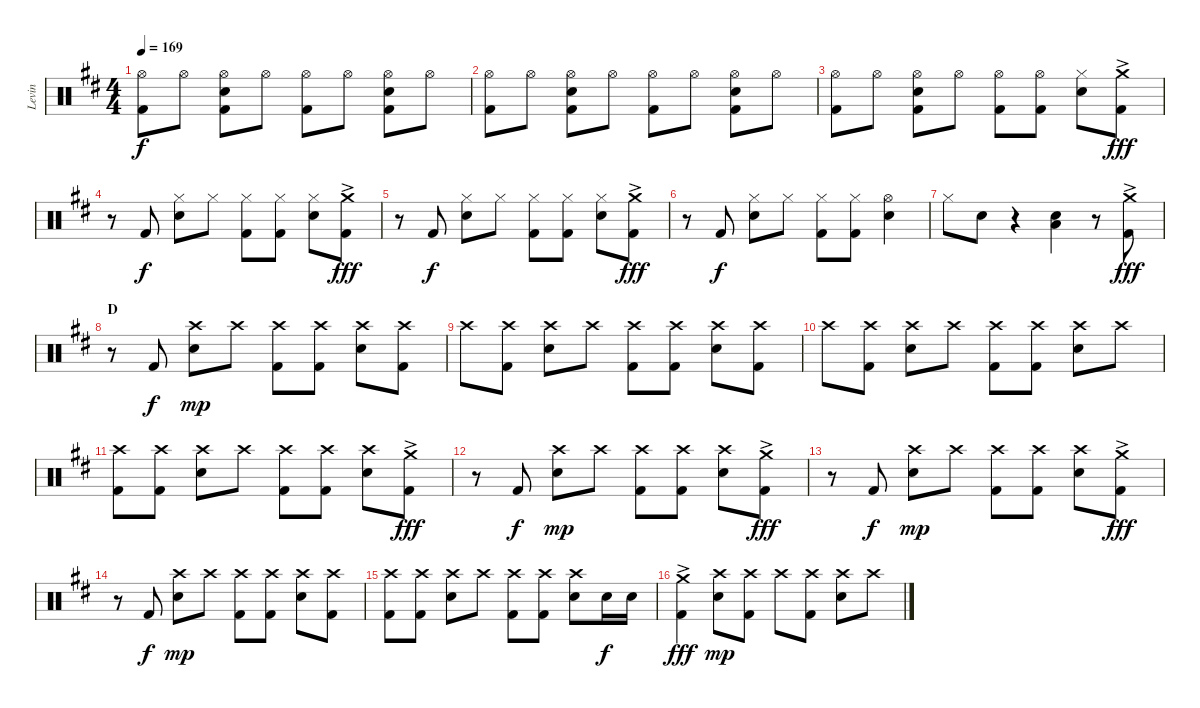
\track ("Levin" "Levin") {instrument percussion}
\staff {score}
\articulation defaults
\ts (4 4)
\tempo 169
\clef neutral
\ks d
("Hi-Hat (open)" "Kick (hit) 2").8{dy f} "Hi-Hat (open)".8 ("Hi-Hat (open)" "Electric Snare (hit)" "Kick (hit) 2").8 "Hi-Hat (open)".8 ("Hi-Hat (open)" "Kick (hit) 2").8 "Hi-Hat (open)".8 ("Hi-Hat (open)" "Electric Snare (hit)" "Kick (hit) 2").8 "Hi-Hat (open)".8 |
("Hi-Hat (open)" "Kick (hit) 2").8 "Hi-Hat (open)".8 ("Hi-Hat (open)" "Electric Snare (hit)" "Kick (hit) 2").8 "Hi-Hat (open)".8 ("Hi-Hat (open)" "Kick (hit) 2").8 "Hi-Hat (open)".8 ("Hi-Hat (open)" "Electric Snare (hit)" "Kick (hit) 2").8 "Hi-Hat (open)".8 |
("Hi-Hat (open)" "Kick (hit) 2").8 "Hi-Hat (open)".8 ("Hi-Hat (open)" "Electric Snare (hit)" "Kick (hit) 2").8 "Hi-Hat (open)".8 ("Hi-Hat (open)" "Kick (hit) 2").8 ("Hi-Hat (open)" "Kick (hit) 2").8 ("Hi-Hat (closed)" "Electric Snare (hit)").8 ("Crash medium (hit)"{ac} "Kick (hit) 2").8{dy fff} |
r.8 "Kick (hit) 2".8{dy f} ("Hi-Hat (closed)" "Electric Snare (hit)").8 "Hi-Hat (closed)".8 ("Hi-Hat (closed)" "Kick (hit) 2").8 ("Hi-Hat (closed)" "Kick (hit) 2").8 ("Hi-Hat (closed)" "Electric Snare (hit)").8 ("Crash medium (hit)"{ac} "Kick (hit) 2").8{dy fff} |
r.8 "Kick (hit) 2".8{dy f} ("Hi-Hat (closed)" "Electric Snare (hit)").8 "Hi-Hat (closed)".8 ("Hi-Hat (closed)" "Kick (hit) 2").8 ("Hi-Hat (closed)" "Kick (hit) 2").8 ("Hi-Hat (closed)" "Electric Snare (hit)").8 ("Crash medium (hit)"{ac} "Kick (hit) 2").8{dy fff} |
r.8 "Kick (hit) 2".8{dy f} ("Hi-Hat (closed)" "Electric Snare (hit)").8 "Hi-Hat (closed)".8 ("Hi-Hat (closed)" "Kick (hit) 2").8 ("Hi-Hat (closed)" "Kick (hit) 2").8 ("Hi-Hat (open)" "Electric Snare (hit)").4 |
"Hi-Hat (closed)".8 "Electric Snare (hit)".8 r.4 ("Electric Snare (hit)" "Low Tom (hit)").4 r.8 ("Crash medium (hit)"{ac} "Kick (hit) 2").8{dy fff} |
\section ("" "D")
r.8 "Kick (hit) 2".8{dy f} ("Crash high (hit)" "Electric Snare (hit)").8{dy mp} "Crash high (hit)".8 ("Crash high (hit)" "Kick (hit) 2").8 ("Crash high (hit)" "Kick (hit) 2").8 ("Crash high (hit)" "Electric Snare (hit)").8 ("Crash high (hit)" "Kick (hit) 2").8 |
"Crash high (hit)".8 ("Crash high (hit)" "Kick (hit) 2").8 ("Crash high (hit)" "Electric Snare (hit)").8 "Crash high (hit)".8 ("Crash high (hit)" "Kick (hit) 2").8 ("Crash high (hit)" "Kick (hit) 2").8 ("Crash high (hit)" "Electric Snare (hit)").8 ("Crash high (hit)" "Kick (hit) 2").8 |
"Crash high (hit)".8 ("Crash high (hit)" "Kick (hit) 2").8 ("Crash high (hit)" "Electric Snare (hit)").8 "Crash high (hit)".8 ("Crash high (hit)" "Kick (hit) 2").8 ("Crash high (hit)" "Kick (hit) 2").8 ("Crash high (hit)" "Electric Snare (hit)").8 "Crash high (hit)".8 |
("Crash high (hit)" "Kick (hit) 2").8 ("Crash high (hit)" "Kick (hit) 2").8 ("Crash high (hit)" "Electric Snare (hit)").8 "Crash high (hit)".8 ("Crash high (hit)" "Kick (hit) 2").8 ("Crash high (hit)" "Kick (hit) 2").8 ("Crash high (hit)" "Electric Snare (hit)").8 ("Crash medium (hit)"{ac} "Kick (hit) 2").8{dy fff} |
r.8 "Kick (hit) 2".8{dy f} ("Crash high (hit)" "Electric Snare (hit)").8{dy mp} "Crash high (hit)".8 ("Crash high (hit)" "Kick (hit) 2").8 ("Crash high (hit)" "Kick (hit) 2").8 ("Crash high (hit)" "Electric Snare (hit)").8 ("Crash medium (hit)"{ac} "Kick (hit) 2").8{dy fff} |
r.8 "Kick (hit) 2".8{dy f} ("Crash high (hit)" "Electric Snare (hit)").8{dy mp} "Crash high (hit)".8 ("Crash high (hit)" "Kick (hit) 2").8 ("Crash high (hit)" "Kick (hit) 2").8 ("Crash high (hit)" "Electric Snare (hit)").8 ("Crash medium (hit)"{ac} "Kick (hit) 2").8{dy fff} |
r.8 "Kick (hit) 2".8{dy f} ("Crash high (hit)" "Electric Snare (hit)").8{dy mp} "Crash high (hit)".8 ("Crash high (hit)" "Kick (hit) 2").8 ("Crash high (hit)" "Kick (hit) 2").8 ("Crash high (hit)" "Electric Snare (hit)").8 ("Crash high (hit)" "Kick (hit) 2").8 |
("Crash high (hit)" "Kick (hit) 2").8 ("Crash high (hit)" "Kick (hit) 2").8 ("Crash high (hit)" "Electric Snare (hit)").8 "Crash high (hit)".8 ("Crash high (hit)" "Kick (hit) 2").8 ("Crash high (hit)" "Kick (hit) 2").8 ("Crash high (hit)" "Electric Snare (hit)").8 "Electric Snare (hit)".16{dy f} "Electric Snare (hit)".16 |
("Crash medium (hit)"{ac} "Kick (hit) 2").4{dy fff} ("Crash high (hit)" "Electric Snare (hit)").8{dy mp} ("Crash high (hit)" "Kick (hit) 2").8 "Crash high (hit)".8 ("Crash high (hit)" "Kick (hit) 2").8 ("Crash high (hit)" "Electric Snare (hit)").8 "Crash high (hit)".8
